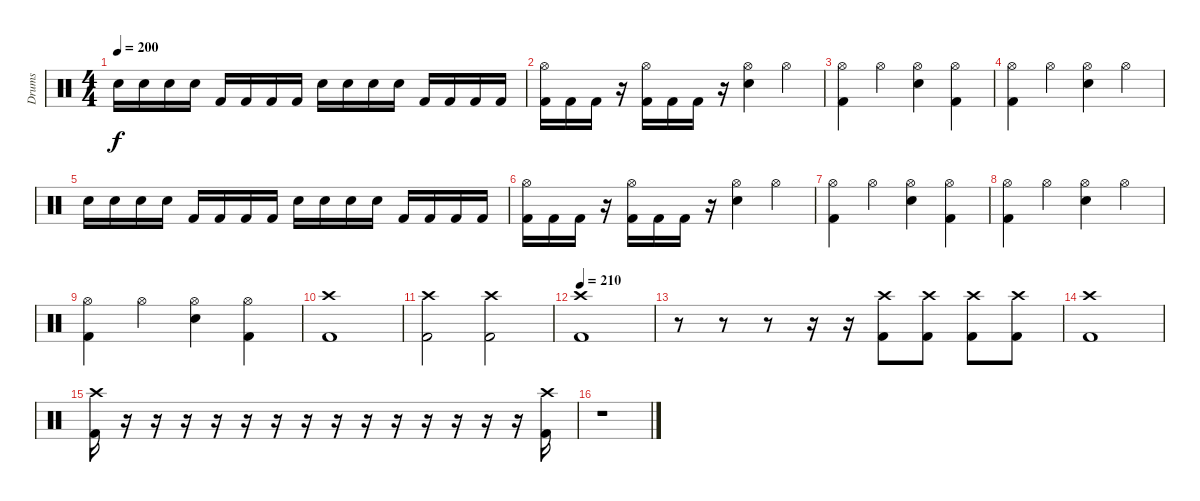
\track ("Drums" "Drums") {instrument percussion}
\staff {score}
\articulation defaults
\ts (4 4)
\tempo 200
\clef neutral
\ks c "Electric Snare (hit)".16{dy f} "Electric Snare (hit)".16 "Electric Snare (hit)".16 "Electric Snare (hit)".16 "Kick (hit) 2".16 "Kick (hit) 2".16 "Kick (hit) 2".16 "Kick (hit) 2".16 "Electric Snare (hit)".16 "Electric Snare (hit)".16 "Electric Snare (hit)".16 "Electric Snare (hit)".16 "Kick (hit) 2".16 "Kick (hit) 2".16 "Kick (hit) 2".16 "Kick (hit) 2".16
|
("Hi-Hat (open)" "Kick (hit) 2").16 "Kick (hit) 2".16 "Kick (hit) 2".16 r.16 ("Hi-Hat (open)" "Kick (hit) 2").16 "Kick (hit) 2".16 "Kick (hit) 2".16 r.16 ("Hi-Hat (open)" "Electric Snare (hit)").4 "Hi-Hat (open)".4 |
("Hi-Hat (open)" "Kick (hit) 2").4 "Hi-Hat (open)".4 ("Hi-Hat (open)" "Electric Snare (hit)").4 ("Hi-Hat (open)" "Kick (hit) 2").4 |
("Hi-Hat (open)" "Kick (hit) 2").4 "Hi-Hat (open)".4 ("Hi-Hat (open)" "Electric Snare (hit)").4 "Hi-Hat (open)".4 |
"Electric Snare (hit)".16 "Electric Snare (hit)".16 "Electric Snare (hit)".16 "Electric Snare (hit)".16 "Kick (hit) 2".16 "Kick (hit) 2".16 "Kick (hit) 2".16 "Kick (hit) 2".16 "Electric Snare (hit)".16 "Electric Snare (hit)".16 "Electric Snare (hit)".16 "Electric Snare (hit)".16 "Kick (hit) 2".16 "Kick (hit) 2".16 "Kick (hit) 2".16 "Kick (hit) 2".16 |
("Hi-Hat (open)" "Kick (hit) 2").16 "Kick (hit) 2".16 "Kick (hit) 2".16 r.16 ("Hi-Hat (open)" "Kick (hit) 2").16 "Kick (hit) 2".16 "Kick (hit) 2".16 r.16 ("Hi-Hat (open)" "Electric Snare (hit)").4 "Hi-Hat (open)".4 |
("Hi-Hat (open)" "Kick (hit) 2").4 "Hi-Hat (open)".4 ("Hi-Hat (open)" "Electric Snare (hit)").4 ("Hi-Hat (open)" "Kick (hit) 2").4 |
("Hi-Hat (open)" "Kick (hit) 2").4 "Hi-Hat (open)".4 ("Hi-Hat (open)" "Electric Snare (hit)").4 "Hi-Hat (open)".4 |
("Hi-Hat (open)" "Kick (hit) 2").4 "Hi-Hat (open)".4 ("Hi-Hat (open)" "Electric Snare (hit)").4 ("Hi-Hat (open)" "Kick (hit) 2").4 |
("Crash high (hit)" "Kick (hit) 2").1 |
("Crash high (hit)" "Kick (hit) 2").2 ("Crash high (hit)" "Kick (hit) 2").2 |
\tempo 210
("Crash high (hit)" "Kick (hit) 2").1 |
r.8 r.8 r.8 r.16 r.16 ("Crash high (hit)" "Kick (hit) 2").8 ("Crash high (hit)" "Kick (hit) 2").8 ("Crash high (hit)" "Kick (hit) 2").8 ("Crash high (hit)" "Kick (hit) 2").8 |
("Crash high (hit)" "Kick (hit) 2").1 |
("Crash high (hit)" "Kick (hit) 2").16 r.16 r.16 r.16 r.16 r.16 r.16 r.16 r.16 r.16 r.16 r.16 r.16 r.16 r.16 ("Crash high (hit)" "Kick (hit) 2").16 |
r.1
